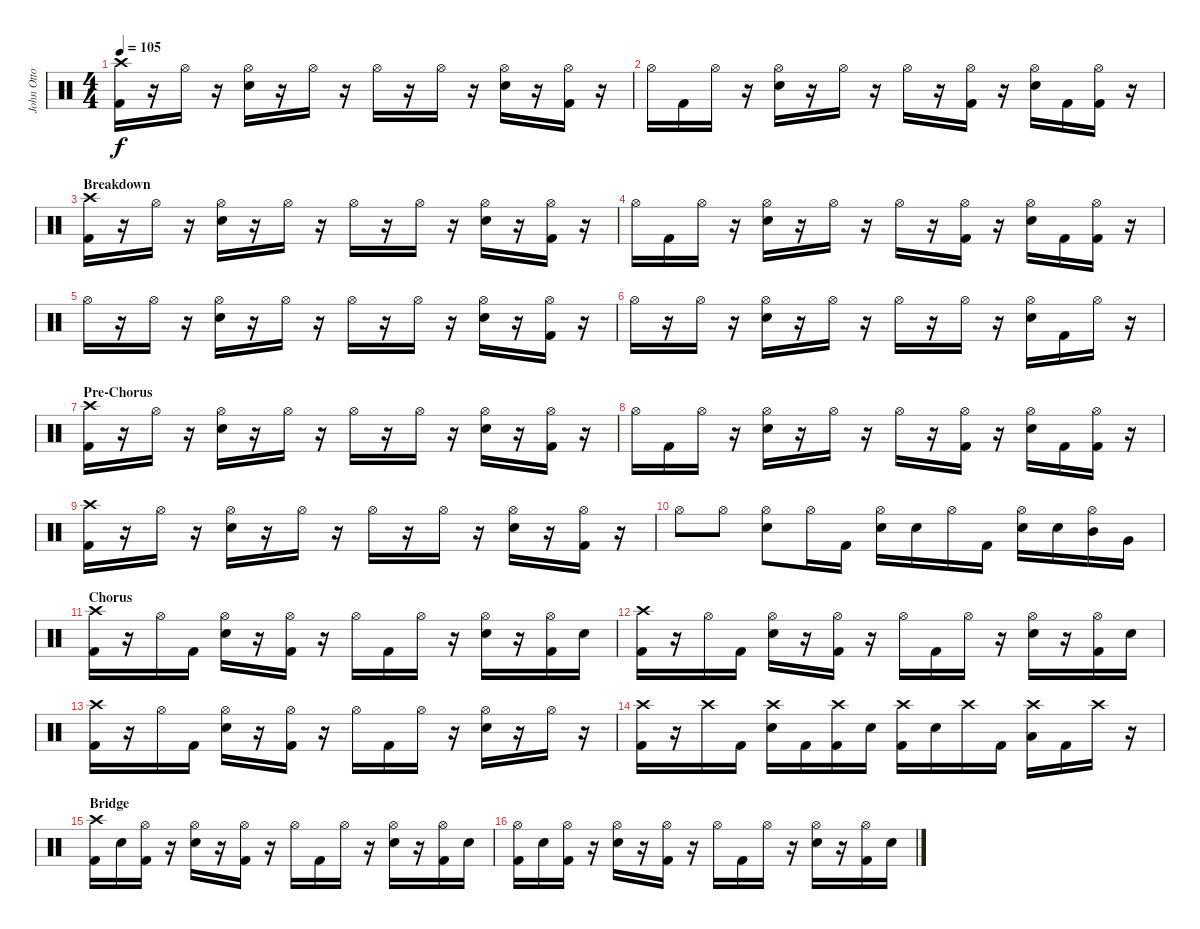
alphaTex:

\track ("John Otto - Drums" "John Otto ") {instrument percussion}
\staff {score}
\articulation defaults
\ts (4 4)
\tempo 105
\clef neutral
\ks c
("Crash high (hit)" "Kick (hit) 2").16{dy f} r.16 "Hi-Hat (open)".16 r.16 ("Hi-Hat (open)" "Electric Snare (hit)").16 r.16 "Hi-Hat (open)".16 r.16 "Hi-Hat (open)".16 r.16 "Hi-Hat (open)".16 r.16 ("Hi-Hat (open)" "Electric Snare (hit)").16 r.16 ("Hi-Hat (open)" "Kick (hit) 2").16 r.16 |
"Hi-Hat (open)".16 "Kick (hit) 2".16 "Hi-Hat (open)".16 r.16 ("Hi-Hat (open)" "Electric Snare (hit)").16 r.16 "Hi-Hat (open)".16 r.16 "Hi-Hat (open)".16 r.16 ("Hi-Hat (open)" "Kick (hit) 2").16 r.16 ("Hi-Hat (open)" "Electric Snare (hit)").16 "Kick (hit) 2".16 ("Hi-Hat (open)" "Kick (hit) 2").16 r.16 |
\section ("" "Breakdown")
("Crash high (hit)" "Kick (hit) 2").16 r.16 "Hi-Hat (open)".16 r.16 ("Hi-Hat (open)" "Electric Snare (hit)").16 r.16 "Hi-Hat (open)".16 r.16 "Hi-Hat (open)".16 r.16 "Hi-Hat (open)".16 r.16 ("Hi-Hat (open)" "Electric Snare (hit)").16 r.16 ("Hi-Hat (open)" "Kick (hit) 2").16 r.16 |
"Hi-Hat (open)".16 "Kick (hit) 2".16 "Hi-Hat (open)".16 r.16 ("Hi-Hat (open)" "Electric Snare (hit)").16 r.16 "Hi-Hat (open)".16 r.16 "Hi-Hat (open)".16 r.16 ("Hi-Hat (open)" "Kick (hit) 2").16 r.16 ("Hi-Hat (open)" "Electric Snare (hit)").16 "Kick (hit) 2".16 ("Hi-Hat (open)" "Kick (hit) 2").16 r.16 |
"Hi-Hat (open)".16 r.16 "Hi-Hat (open)".16 r.16 ("Hi-Hat (open)" "Electric Snare (hit)").16 r.16 "Hi-Hat (open)".16 r.16 "Hi-Hat (open)".16 r.16 "Hi-Hat (open)".16 r.16 ("Hi-Hat (open)" "Electric Snare (hit)").16 r.16 ("Hi-Hat (open)" "Kick (hit) 2").16 r.16 |
"Hi-Hat (open)".16 r.16 "Hi-Hat (open)".16 r.16 ("Hi-Hat (open)" "Electric Snare (hit)").16 r.16 "Hi-Hat (open)".16 r.16 "Hi-Hat (open)".16 r.16 "Hi-Hat (open)".16 r.16 ("Hi-Hat (open)" "Electric Snare (hit)").16 "Kick (hit) 2".16 "Hi-Hat (open)".16 r.16 |
\section ("" "Pre-Chorus")
("Crash high (hit)" "Kick (hit) 2").16 r.16 "Hi-Hat (open)".16 r.16 ("Hi-Hat (open)" "Electric Snare (hit)").16 r.16 "Hi-Hat (open)".16 r.16 "Hi-Hat (open)".16 r.16 "Hi-Hat (open)".16 r.16 ("Hi-Hat (open)" "Electric Snare (hit)").16 r.16 ("Hi-Hat (open)" "Kick (hit) 2").16 r.16 |
"Hi-Hat (open)".16 "Kick (hit) 2".16 "Hi-Hat (open)".16 r.16 ("Hi-Hat (open)" "Electric Snare (hit)").16 r.16 "Hi-Hat (open)".16 r.16 "Hi-Hat (open)".16 r.16 ("Hi-Hat (open)" "Kick (hit) 2").16 r.16 ("Hi-Hat (open)" "Electric Snare (hit)").16 "Kick (hit) 2".16 ("Hi-Hat (open)" "Kick (hit) 2").16 r.16 |
("Crash high (hit)" "Kick (hit) 2").16 r.16 "Hi-Hat (open)".16 r.16 ("Hi-Hat (open)" "Electric Snare (hit)").16 r.16 "Hi-Hat (open)".16 r.16 "Hi-Hat (open)".16 r.16 "Hi-Hat (open)".16 r.16 ("Hi-Hat (open)" "Electric Snare (hit)").16 r.16 ("Hi-Hat (open)" "Kick (hit) 2").16 r.16 |
"Hi-Hat (open)".8 "Hi-Hat (open)".8 ("Hi-Hat (open)" "Electric Snare (hit)").8 "Hi-Hat (open)".16 "Kick (hit) 2".16 ("Hi-Hat (open)" "Electric Snare (hit)").16 "Electric Snare (hit)".16 "Hi-Hat (open)".16 "Kick (hit) 2".16 ("Hi-Hat (open)" "Electric Snare (hit)").16 "Electric Snare (hit)".16 ("Hi-Hat (open)" "Mid Tom (hit)").16 "Very Low Tom (hit)".16 |
\section ("" "Chorus")
("Crash high (hit)" "Kick (hit) 2").16 r.16 "Hi-Hat (open)".16 "Kick (hit) 2".16 ("Hi-Hat (open)" "Electric Snare (hit)").16 r.16 ("Hi-Hat (open)" "Kick (hit) 2").16 r.16 "Hi-Hat (open)".16 "Kick (hit) 2".16 "Hi-Hat (open)".16 r.16 ("Hi-Hat (open)" "Electric Snare (hit)").16 r.16 ("Hi-Hat (open)" "Kick (hit) 2").16 "Electric Snare (hit)".16 |
("Crash high (hit)" "Kick (hit) 2").16 r.16 "Hi-Hat (open)".16 "Kick (hit) 2".16 ("Hi-Hat (open)" "Electric Snare (hit)").16 r.16 ("Hi-Hat (open)" "Kick (hit) 2").16 r.16 "Hi-Hat (open)".16 "Kick (hit) 2".16 "Hi-Hat (open)".16 r.16 ("Hi-Hat (open)" "Electric Snare (hit)").16 r.16 ("Hi-Hat (open)" "Kick (hit) 2").16 "Electric Snare (hit)".16 |
("Crash high (hit)" "Kick (hit) 2").16 r.16 "Hi-Hat (open)".16 "Kick (hit) 2".16 ("Hi-Hat (open)" "Electric Snare (hit)").16 r.16 ("Hi-Hat (open)" "Kick (hit) 2").16 r.16 "Hi-Hat (open)".16 "Kick (hit) 2".16 "Hi-Hat (open)".16 r.16 ("Hi-Hat (open)" "Electric Snare (hit)").16 r.16 "Hi-Hat (open)".16 r.16 |
("Crash high (hit)" "Kick (hit) 2").16 r.16 "Crash high (hit)".16 "Kick (hit) 2".16 ("Crash high (hit)" "Electric Snare (hit)").16 "Kick (hit) 2".16 ("Crash high (hit)" "Kick (hit) 2").16 "Electric Snare (hit)".16 ("Crash high (hit)" "Kick (hit) 2").16 "Electric Snare (hit)".16 "Crash high (hit)".16 "Kick (hit) 2".16 ("Crash high (hit)" "Low Tom (hit)").16 "Kick (hit) 2".16 "Crash high (hit)".16 r.16 |
\section ("" "Bridge")
("Crash high (hit)" "Kick (hit) 2").16 "Electric Snare (hit)".16 ("Hi-Hat (open)" "Kick (hit) 2").16 r.16 ("Hi-Hat (open)" "Electric Snare (hit)").16 r.16 ("Hi-Hat (open)" "Kick (hit) 2").16 r.16 "Hi-Hat (open)".16 "Kick (hit) 2".16 "Hi-Hat (open)".16 r.16 ("Hi-Hat (open)" "Electric Snare (hit)").16 r.16 ("Hi-Hat (open)" "Kick (hit) 2").16 "Electric Snare (hit)".16 |
("Hi-Hat (open)" "Kick (hit) 2").16 "Electric Snare (hit)".16 ("Hi-Hat (open)" "Kick (hit) 2").16 r.16 ("Hi-Hat (open)" "Electric Snare (hit)").16 r.16 ("Hi-Hat (open)" "Kick (hit) 2").16 r.16 "Hi-Hat (open)".16 "Kick (hit) 2".16 "Hi-Hat (open)".16 r.16 ("Hi-Hat (open)" "Electric Snare (hit)").16 r.16 ("Hi-Hat (open)" "Kick (hit) 2").16 "Electric Snare (hit)".16
